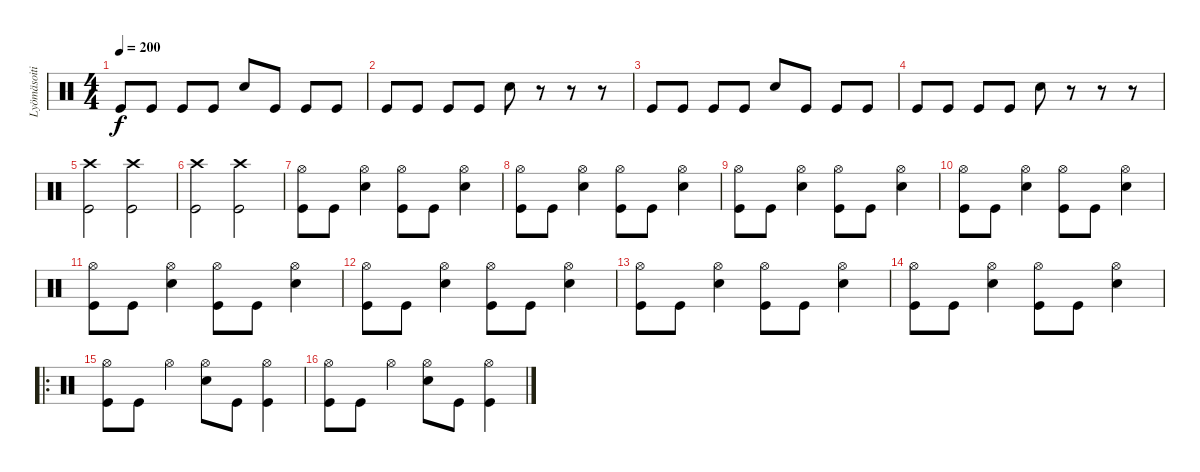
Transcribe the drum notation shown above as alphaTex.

\track ("Lyömäsoitin" "Lyömäsoiti") {instrument percussion}
\staff {score}
\articulation defaults
\ts (4 4)
\tempo 200
\clef neutral
\ks c "Kick (hit)".8{dy f} "Kick (hit)".8 "Kick (hit)".8 "Kick (hit)".8 "Snare (hit) 2".8 "Kick (hit)".8 "Kick (hit)".8 "Kick (hit)".8
|
"Kick (hit)".8 "Kick (hit)".8 "Kick (hit)".8 "Kick (hit)".8 "Snare (hit) 2".8 r.8 r.8 r.8 |
"Kick (hit)".8 "Kick (hit)".8 "Kick (hit)".8 "Kick (hit)".8 "Snare (hit) 2".8 "Kick (hit)".8 "Kick (hit)".8 "Kick (hit)".8 |
"Kick (hit)".8 "Kick (hit)".8 "Kick (hit)".8 "Kick (hit)".8 "Snare (hit) 2".8 r.8 r.8 r.8 |
("Crash high (hit)" "Kick (hit)").2 ("Crash high (hit)" "Kick (hit)").2 |
("Crash high (hit)" "Kick (hit)").2 ("Crash high (hit)" "Kick (hit)").2 |
("Hi-Hat (open)" "Kick (hit)").8 "Kick (hit)".8 ("Hi-Hat (open)" "Snare (hit) 2").4 ("Hi-Hat (open)" "Kick (hit)").8 "Kick (hit)".8 ("Hi-Hat (open)" "Snare (hit) 2").4 |
("Hi-Hat (open)" "Kick (hit)").8 "Kick (hit)".8 ("Hi-Hat (open)" "Snare (hit) 2").4 ("Hi-Hat (open)" "Kick (hit)").8 "Kick (hit)".8 ("Hi-Hat (open)" "Snare (hit) 2").4 |
("Hi-Hat (open)" "Kick (hit)").8 "Kick (hit)".8 ("Hi-Hat (open)" "Snare (hit) 2").4 ("Hi-Hat (open)" "Kick (hit)").8 "Kick (hit)".8 ("Hi-Hat (open)" "Snare (hit) 2").4 |
("Hi-Hat (open)" "Kick (hit)").8 "Kick (hit)".8 ("Hi-Hat (open)" "Snare (hit) 2").4 ("Hi-Hat (open)" "Kick (hit)").8 "Kick (hit)".8 ("Hi-Hat (open)" "Snare (hit) 2").4 |
("Hi-Hat (open)" "Kick (hit)").8 "Kick (hit)".8 ("Hi-Hat (open)" "Snare (hit) 2").4 ("Hi-Hat (open)" "Kick (hit)").8 "Kick (hit)".8 ("Hi-Hat (open)" "Snare (hit) 2").4 |
("Hi-Hat (open)" "Kick (hit)").8 "Kick (hit)".8 ("Hi-Hat (open)" "Snare (hit) 2").4 ("Hi-Hat (open)" "Kick (hit)").8 "Kick (hit)".8 ("Hi-Hat (open)" "Snare (hit) 2").4 |
("Hi-Hat (open)" "Kick (hit)").8 "Kick (hit)".8 ("Hi-Hat (open)" "Snare (hit) 2").4 ("Hi-Hat (open)" "Kick (hit)").8 "Kick (hit)".8 ("Hi-Hat (open)" "Snare (hit) 2").4 |
("Hi-Hat (open)" "Kick (hit)").8 "Kick (hit)".8 ("Hi-Hat (open)" "Snare (hit) 2").4 ("Hi-Hat (open)" "Kick (hit)").8 "Kick (hit)".8 ("Hi-Hat (open)" "Snare (hit) 2").4 |
\ro
("Hi-Hat (open)" "Kick (hit)").8 "Kick (hit)".8 "Hi-Hat (open)".4 ("Hi-Hat (open)" "Snare (hit) 2").8 "Kick (hit)".8 ("Hi-Hat (open)" "Kick (hit)").4 |
("Hi-Hat (open)" "Kick (hit)").8 "Kick (hit)".8 "Hi-Hat (open)".4 ("Hi-Hat (open)" "Snare (hit) 2").8 "Kick (hit)".8 ("Hi-Hat (open)" "Kick (hit)").4
